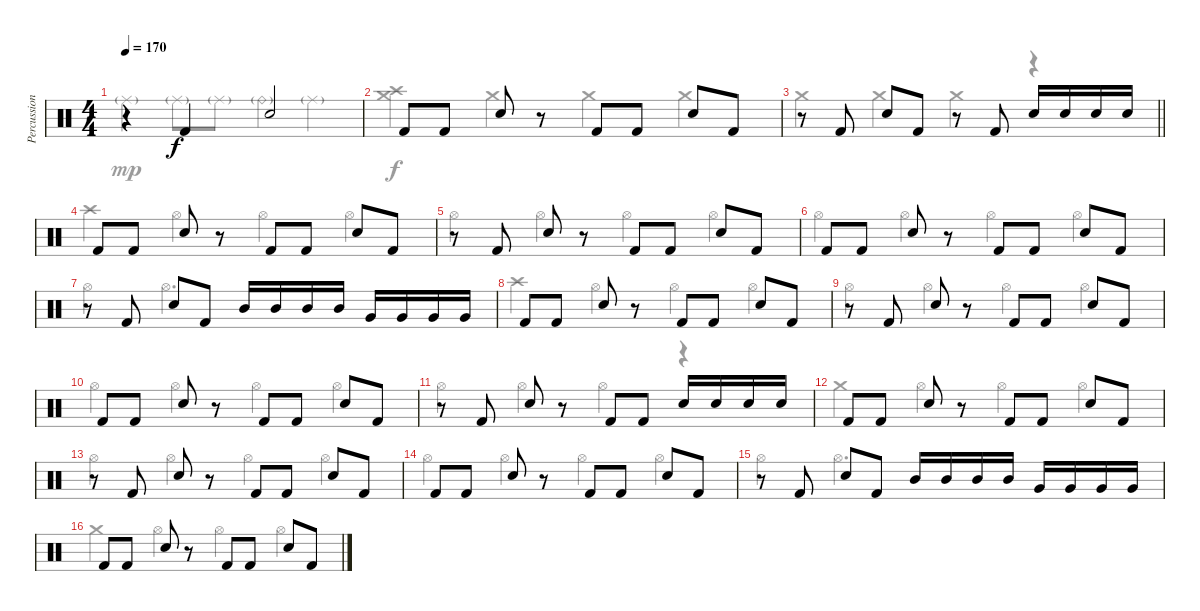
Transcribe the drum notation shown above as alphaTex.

\track ("Percussion" "Percussion") {instrument percussion}
\staff {score}
\articulation defaults
\voice
\ts (4 4)
\tempo 170
\clef neutral
\ks c
r.4{dy f} "Kick (hit) 2".4 "Snare (hit) 2".2 |
"Kick (hit) 2".8 "Kick (hit) 2".8 "Snare (hit) 2".8 r.8 "Kick (hit) 2".8 "Kick (hit) 2".8 "Snare (hit) 2".8 "Kick (hit) 2".8 |
\barLineRight lightlight
r.8 "Kick (hit) 2".8 "Snare (hit) 2".8 "Kick (hit) 2".8 r.8 "Kick (hit) 2".8 "Snare (hit) 2".16 "Snare (hit) 2".16 "Snare (hit) 2".16 "Snare (hit) 2".16 |
"Kick (hit) 2".8 "Kick (hit) 2".8 "Snare (hit) 2".8 r.8 "Kick (hit) 2".8 "Kick (hit) 2".8 "Snare (hit) 2".8 "Kick (hit) 2".8 |
r.8 "Kick (hit) 2".8 "Snare (hit) 2".8 r.8 "Kick (hit) 2".8 "Kick (hit) 2".8 "Snare (hit) 2".8 "Kick (hit) 2".8 |
"Kick (hit) 2".8 "Kick (hit) 2".8 "Snare (hit) 2".8 r.8 "Kick (hit) 2".8 "Kick (hit) 2".8 "Snare (hit) 2".8 "Kick (hit) 2".8 |
r.8 "Kick (hit) 2".8 "Snare (hit) 2".8 "Kick (hit) 2".8 "Mid Tom (hit)".16 "Mid Tom (hit)".16 "Mid Tom (hit)".16 "Mid Tom (hit)".16 "Very Low Tom (hit)".16 "Very Low Tom (hit)".16 "Very Low Tom (hit)".16 "Very Low Tom (hit)".16 |
"Kick (hit) 2".8 "Kick (hit) 2".8 "Snare (hit) 2".8 r.8 "Kick (hit) 2".8 "Kick (hit) 2".8 "Snare (hit) 2".8 "Kick (hit) 2".8 |
r.8 "Kick (hit) 2".8 "Snare (hit) 2".8 r.8 "Kick (hit) 2".8 "Kick (hit) 2".8 "Snare (hit) 2".8 "Kick (hit) 2".8 |
"Kick (hit) 2".8 "Kick (hit) 2".8 "Snare (hit) 2".8 r.8 "Kick (hit) 2".8 "Kick (hit) 2".8 "Snare (hit) 2".8 "Kick (hit) 2".8 |
r.8 "Kick (hit) 2".8 "Snare (hit) 2".8 r.8 "Kick (hit) 2".8 "Kick (hit) 2".8 "Snare (hit) 2".16 "Snare (hit) 2".16 "Snare (hit) 2".16 "Snare (hit) 2".16 |
"Kick (hit) 2".8 "Kick (hit) 2".8 "Snare (hit) 2".8 r.8 "Kick (hit) 2".8 "Kick (hit) 2".8 "Snare (hit) 2".8 "Kick (hit) 2".8 |
r.8 "Kick (hit) 2".8 "Snare (hit) 2".8 r.8 "Kick (hit) 2".8 "Kick (hit) 2".8 "Snare (hit) 2".8 "Kick (hit) 2".8 |
"Kick (hit) 2".8 "Kick (hit) 2".8 "Snare (hit) 2".8 r.8 "Kick (hit) 2".8 "Kick (hit) 2".8 "Snare (hit) 2".8 "Kick (hit) 2".8 |
r.8 "Kick (hit) 2".8 "Snare (hit) 2".8 "Kick (hit) 2".8 "Mid Tom (hit)".16 "Mid Tom (hit)".16 "Mid Tom (hit)".16 "Mid Tom (hit)".16 "Very Low Tom (hit)".16 "Very Low Tom (hit)".16 "Very Low Tom (hit)".16 "Very Low Tom (hit)".16 |
"Kick (hit) 2".8 "Kick (hit) 2".8 "Snare (hit) 2".8 r.8 "Kick (hit) 2".8 "Kick (hit) 2".8 "Snare (hit) 2".8 "Kick (hit) 2".8
\voice
\clef neutral
\ottava regular
\simile none
\ks c "Ride (middle)"{g}.4{dy mp} "Ride (middle)"{g}.8 "Ride (middle)"{g}.8 "Ride (bell)"{g}.4 "Ride (middle)"{g}.4
|
("Crash medium (hit)" "Crash high (hit)").4{dy f} "Crash medium (hit)".4 "Crash medium (hit)".4 "Crash medium (hit)".4 |
\barLineRight lightlight "Crash medium (hit)".4 "Crash medium (hit)".4 "Crash medium (hit)".4
r.4 |
"Crash high (hit)".4 "Hi-Hat (open)".4 "Hi-Hat (open)".4 "Hi-Hat (open)".4 |
"Hi-Hat (open)".4 "Hi-Hat (open)".4 "Hi-Hat (open)".4 "Hi-Hat (open)".4 |
"Hi-Hat (open)".4 "Hi-Hat (open)".4 "Hi-Hat (open)".4 "Hi-Hat (open)".4 |
"Hi-Hat (open)".4 "Hi-Hat (open)".2{d} |
"Crash high (hit)".4 "Hi-Hat (open)".4 "Hi-Hat (open)".4 "Hi-Hat (open)".4 |
"Hi-Hat (open)".4 "Hi-Hat (open)".4 "Hi-Hat (open)".4 "Hi-Hat (open)".4 |
"Hi-Hat (open)".4 "Hi-Hat (open)".4 "Hi-Hat (open)".4 "Hi-Hat (open)".4 |
"Hi-Hat (open)".4 "Hi-Hat (open)".4 "Hi-Hat (open)".4 r.4 |
"Crash medium (hit)".4 "Hi-Hat (open)".4 "Hi-Hat (open)".4 "Hi-Hat (open)".4 |
"Hi-Hat (open)".4 "Hi-Hat (open)".4 "Hi-Hat (open)".4 "Hi-Hat (open)".4 |
"Hi-Hat (open)".4 "Hi-Hat (open)".4 "Hi-Hat (open)".4 "Hi-Hat (open)".4 |
"Hi-Hat (open)".4 "Hi-Hat (open)".2{d} |
"Crash medium (hit)".4 "Hi-Hat (open)".4 "Hi-Hat (open)".4 "Hi-Hat (open)".4
